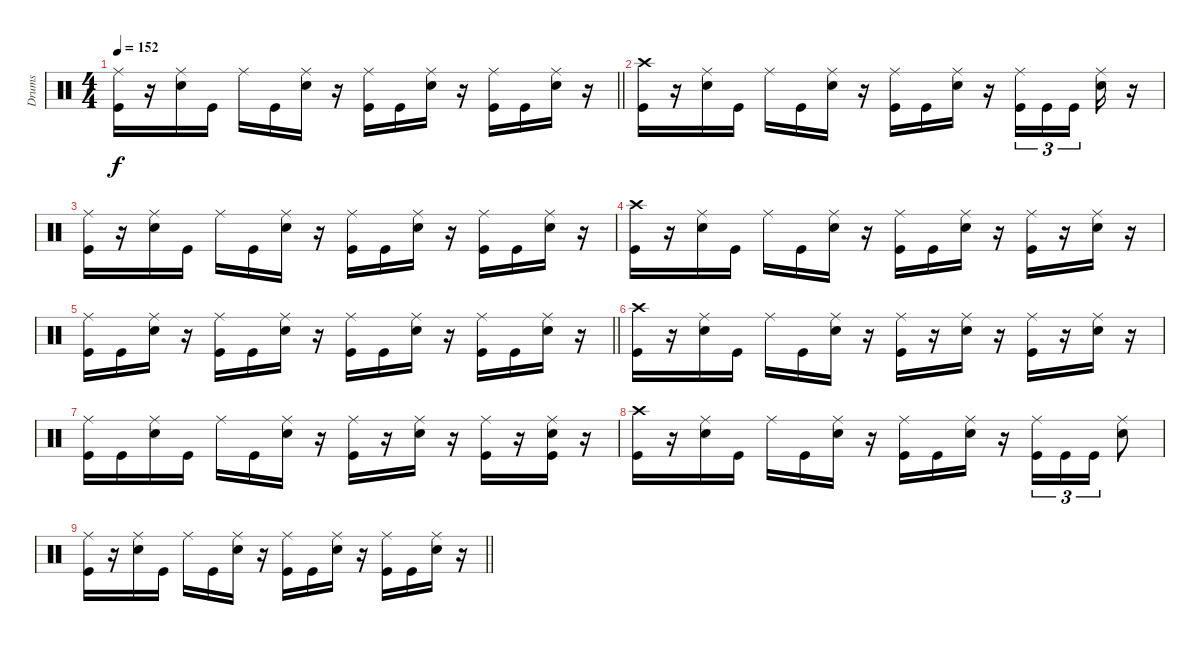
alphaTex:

\track ("Drums" "Drums") {instrument percussion}
\staff
\articulation defaults
\ts (4 4)
\tempo 152
\clef neutral
\barLineRight lightlight
\ks c
("Ride (middle)" "Kick (hit)").16{dy f} r.16 ("Ride (middle)" "Electric Snare (hit)").16 "Kick (hit)".16 "Ride (middle)".16 "Kick (hit)".16 ("Ride (middle)" "Electric Snare (hit)").16 r.16 ("Ride (middle)" "Kick (hit)").16 "Kick (hit)".16 ("Ride (middle)" "Electric Snare (hit)").16 r.16 ("Ride (middle)" "Kick (hit)").16 "Kick (hit)".16 ("Ride (middle)" "Electric Snare (hit)").16 r.16 |
("Crash high (hit)" "Kick (hit)").16 r.16 ("Ride (middle)" "Electric Snare (hit)").16 "Kick (hit)".16 "Ride (middle)".16 "Kick (hit)".16 ("Ride (middle)" "Electric Snare (hit)").16 r.16 ("Ride (middle)" "Kick (hit)").16 "Kick (hit)".16 ("Ride (middle)" "Electric Snare (hit)").16 r.16 ("Ride (middle)" "Kick (hit)").16{tu (3 2)} "Kick (hit)".16{tu (3 2)} "Kick (hit)".16{tu (3 2) beam splitsecondary} ("Ride (middle)" "Electric Snare (hit)").16 r.16 |
("Ride (middle)" "Kick (hit)").16 r.16 ("Ride (middle)" "Electric Snare (hit)").16 "Kick (hit)".16 "Ride (middle)".16 "Kick (hit)".16 ("Ride (middle)" "Electric Snare (hit)").16 r.16 ("Ride (middle)" "Kick (hit)").16 "Kick (hit)".16 ("Ride (middle)" "Electric Snare (hit)").16 r.16 ("Ride (middle)" "Kick (hit)").16 "Kick (hit)".16 ("Ride (middle)" "Electric Snare (hit)").16 r.16 |
("Crash high (hit)" "Kick (hit)").16 r.16 ("Ride (middle)" "Electric Snare (hit)").16 "Kick (hit)".16 "Ride (middle)".16 "Kick (hit)".16 ("Ride (middle)" "Electric Snare (hit)").16 r.16 ("Ride (middle)" "Kick (hit)").16 "Kick (hit)".16 ("Ride (middle)" "Electric Snare (hit)").16 r.16 ("Ride (middle)" "Kick (hit)").16 r.16 ("Ride (middle)" "Electric Snare (hit)").16 r.16 |
\barLineRight lightlight
("Ride (middle)" "Kick (hit)").16 "Kick (hit)".16 ("Ride (middle)" "Electric Snare (hit)").16 r.16 ("Ride (middle)" "Kick (hit)").16 "Kick (hit)".16 ("Ride (middle)" "Electric Snare (hit)").16 r.16 ("Ride (middle)" "Kick (hit)").16 "Kick (hit)".16 ("Ride (middle)" "Electric Snare (hit)").16 r.16 ("Ride (middle)" "Kick (hit)").16 "Kick (hit)".16 ("Ride (middle)" "Electric Snare (hit)").16 r.16 |
("Crash high (hit)" "Kick (hit)").16 r.16 ("Ride (middle)" "Electric Snare (hit)").16 "Kick (hit)".16 "Ride (middle)".16 "Kick (hit)".16 ("Ride (middle)" "Electric Snare (hit)").16 r.16 ("Ride (middle)" "Kick (hit)").16 r.16 ("Ride (middle)" "Electric Snare (hit)").16 r.16 ("Ride (middle)" "Kick (hit)").16 r.16 ("Ride (middle)" "Electric Snare (hit)").16 r.16 |
("Ride (middle)" "Kick (hit)").16 "Kick (hit)".16 ("Ride (middle)" "Electric Snare (hit)").16 "Kick (hit)".16 "Ride (middle)".16 "Kick (hit)".16 ("Ride (middle)" "Electric Snare (hit)").16 r.16 ("Ride (middle)" "Kick (hit)").16 r.16 ("Ride (middle)" "Electric Snare (hit)").16 r.16 ("Ride (middle)" "Kick (hit)").16 r.16 ("Ride (middle)" "Electric Snare (hit)" "Kick (hit)").16 r.16 |
("Crash high (hit)" "Kick (hit)").16 r.16 ("Ride (middle)" "Electric Snare (hit)").16 "Kick (hit)".16 "Ride (middle)".16 "Kick (hit)".16 ("Ride (middle)" "Electric Snare (hit)").16 r.16 ("Ride (middle)" "Kick (hit)").16 "Kick (hit)".16 ("Ride (middle)" "Electric Snare (hit)").16 r.16 ("Ride (middle)" "Kick (hit)").16{tu (3 2)} "Kick (hit)".16{tu (3 2)} "Kick (hit)".16{tu (3 2)} ("Ride (middle)" "Electric Snare (hit)").8 |
\barLineRight lightlight
("Ride (middle)" "Kick (hit)").16 r.16 ("Ride (middle)" "Electric Snare (hit)").16 "Kick (hit)".16 "Ride (middle)".16 "Kick (hit)".16 ("Ride (middle)" "Electric Snare (hit)").16 r.16 ("Ride (middle)" "Kick (hit)").16 "Kick (hit)".16 ("Ride (middle)" "Electric Snare (hit)").16 r.16 ("Ride (middle)" "Kick (hit)").16 "Kick (hit)".16 ("Ride (middle)" "Electric Snare (hit)").16 r.16
